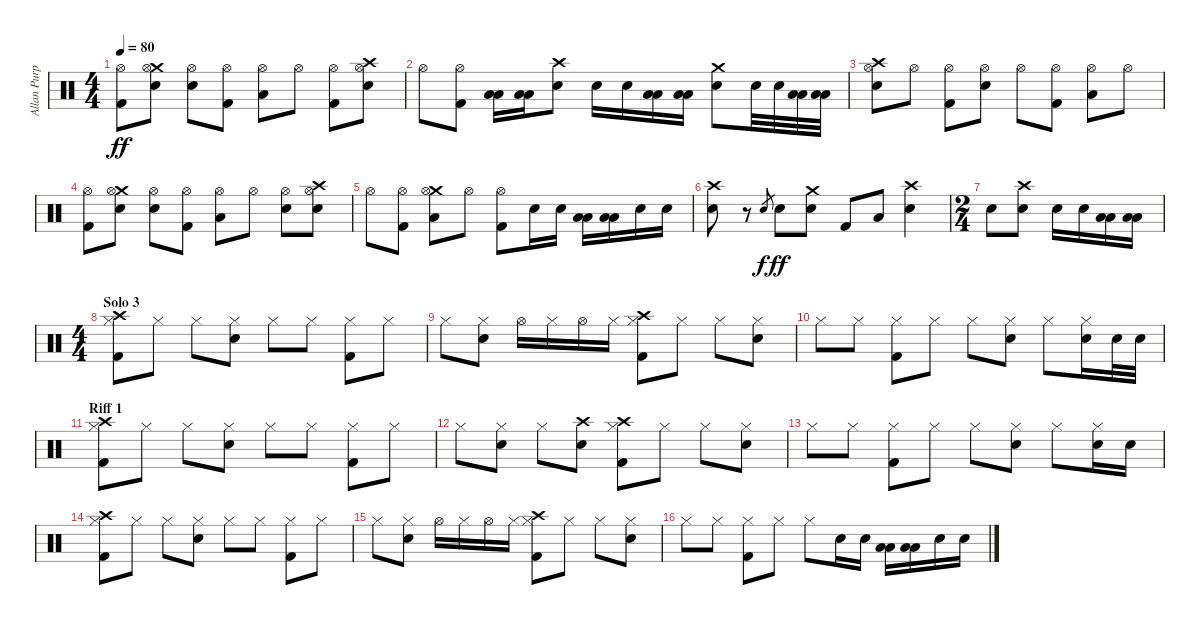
\track ("Allan Purple" "Allan Purp") {instrument percussion}
\staff {score}
\articulation defaults
\ts (4 4)
\tempo 80
\clef neutral
\ks c
("Hi-Hat (open)" "Kick (hit) 2").8{dy ff} ("Crash medium (hit)" "Hi-Hat (open)" "Snare (hit) 2").8 ("Hi-Hat (open)" "Electric Snare (hit)").8 ("Hi-Hat (open)" "Kick (hit) 2").8 ("Hi-Hat (open)" "Low Tom (hit)").8 "Hi-Hat (open)".8 ("Hi-Hat (open)" "Kick (hit) 2").8 ("Crash high (hit)" "Hi-Hat (open)" "Snare (hit) 2").8 |
"Hi-Hat (open)".8 ("Hi-Hat (open)" "Kick (hit) 2").8 ("Low Tom (hit)" "Low Tom (hit)").16 ("Low Tom (hit)" "Low Tom (hit)").16 ("Crash high (hit)" "Electric Snare (hit)").8 "Electric Snare (hit)".16 "Electric Snare (hit)".16 ("Low Tom (hit)" "Low Tom (hit)").16 ("Low Tom (hit)" "Low Tom (hit)").16 ("Crash medium (hit)" "Snare (hit) 2").8 "Electric Snare (hit)".32 "Electric Snare (hit)".32 ("Low Tom (hit)" "Low Tom (hit)").32 ("Low Tom (hit)" "Low Tom (hit)").32 |
("Crash high (hit)" "Hi-Hat (open)" "Snare (hit) 2").8 "Hi-Hat (open)".8 ("Hi-Hat (open)" "Kick (hit) 2").8 ("Hi-Hat (open)" "Snare (hit) 2").8 "Hi-Hat (open)".8 ("Hi-Hat (open)" "Kick (hit) 2").8 ("Hi-Hat (open)" "Low Tom (hit)").8 "Hi-Hat (open)".8 |
("Hi-Hat (open)" "Kick (hit) 2").8 ("Crash medium (hit)" "Hi-Hat (open)" "Snare (hit) 2").8 ("Hi-Hat (open)" "Electric Snare (hit)").8 ("Hi-Hat (open)" "Kick (hit) 2").8 ("Hi-Hat (open)" "Low Tom (hit)").8 "Hi-Hat (open)".8 ("Hi-Hat (open)" "Snare (hit) 2").8 ("Crash high (hit)" "Hi-Hat (open)" "Snare (hit) 2").8 |
"Hi-Hat (open)".8 ("Hi-Hat (open)" "Kick (hit) 2").8 ("Crash medium (hit)" "Hi-Hat (open)" "Low Tom (hit)").8 "Hi-Hat (open)".8 ("Hi-Hat (open)" "Kick (hit) 2").8 "Electric Snare (hit)".16 "Electric Snare (hit)".16 ("Low Tom (hit)" "Low Tom (hit)").16 ("Low Tom (hit)" "Low Tom (hit)").16 "Electric Snare (hit)".16 "Electric Snare (hit)".16 |
("Crash high (hit)" "Snare (hit) 2").8 r.8 "Electric Snare (hit)".8{gr dy f} "Electric Snare (hit)".8{dy ff} ("Crash medium (hit)" "Electric Snare (hit)").8 "Kick (hit) 2".8 "Low Tom (hit)".8 ("Crash high (hit)" "Electric Snare (hit)").4 |
\ts (2 4)
"Snare (hit) 2".8 ("Crash high (hit)" "Electric Snare (hit)").8 "Electric Snare (hit)".16 "Electric Snare (hit)".16 ("Low Tom (hit)" "Low Tom (hit)").16 ("Low Tom (hit)" "Low Tom (hit)").16 |
\ts (4 4)
\section ("" "Solo 3")
("Crash high (hit)" "Hi-Hat (closed)" "Kick (hit) 2").8 "Hi-Hat (closed)".8 "Hi-Hat (closed)".8 ("Hi-Hat (closed)" "Snare (hit) 2").8 "Hi-Hat (closed)".8 "Hi-Hat (closed)".8 ("Hi-Hat (closed)" "Kick (hit) 2").8 "Hi-Hat (closed)".8 |
"Hi-Hat (closed)".8 ("Hi-Hat (closed)" "Snare (hit) 2").8 "Hi-Hat (open)".16 "Hi-Hat (closed)".16 "Hi-Hat (open)".16 "Hi-Hat (closed)".16 ("Crash high (hit)" "Hi-Hat (closed)" "Kick (hit) 2").8 "Hi-Hat (closed)".8 "Hi-Hat (closed)".8 ("Hi-Hat (closed)" "Snare (hit) 2").8 |
"Hi-Hat (closed)".8 "Hi-Hat (closed)".8 ("Hi-Hat (closed)" "Kick (hit) 2").8 "Hi-Hat (closed)".8 "Hi-Hat (closed)".8 ("Hi-Hat (closed)" "Snare (hit) 2").8 "Hi-Hat (closed)".8 ("Hi-Hat (closed)" "Electric Snare (hit)").16 "Electric Snare (hit)".32 "Electric Snare (hit)".32 |
\section ("" "Riff 1")
("Crash high (hit)" "Hi-Hat (closed)" "Kick (hit) 2").8 "Hi-Hat (closed)".8 "Hi-Hat (closed)".8 ("Hi-Hat (closed)" "Snare (hit) 2").8 "Hi-Hat (closed)".8 "Hi-Hat (closed)".8 ("Hi-Hat (closed)" "Kick (hit) 2").8 "Hi-Hat (closed)".8 |
"Hi-Hat (closed)".8 ("Hi-Hat (closed)" "Snare (hit) 2").8 "Hi-Hat (closed)".8 ("Crash high (hit)" "Electric Snare (hit)").8 ("Crash high (hit)" "Hi-Hat (closed)" "Kick (hit) 2").8 "Hi-Hat (closed)".8 "Hi-Hat (closed)".8 ("Hi-Hat (closed)" "Snare (hit) 2").8 |
"Hi-Hat (closed)".8 "Hi-Hat (closed)".8 ("Hi-Hat (closed)" "Kick (hit) 2").8 "Hi-Hat (closed)".8 "Hi-Hat (closed)".8 ("Hi-Hat (closed)" "Snare (hit) 2").8 "Hi-Hat (closed)".8 ("Hi-Hat (closed)" "Electric Snare (hit)").16 "Electric Snare (hit)".16 |
("Crash high (hit)" "Hi-Hat (closed)" "Kick (hit) 2").8 "Hi-Hat (closed)".8 "Hi-Hat (closed)".8 ("Hi-Hat (closed)" "Snare (hit) 2").8 "Hi-Hat (closed)".8 "Hi-Hat (closed)".8 ("Hi-Hat (closed)" "Kick (hit) 2").8 "Hi-Hat (closed)".8 |
"Hi-Hat (closed)".8 ("Hi-Hat (closed)" "Snare (hit) 2").8 "Hi-Hat (open)".16 "Hi-Hat (closed)".16 "Hi-Hat (open)".16 "Hi-Hat (closed)".16 ("Crash high (hit)" "Hi-Hat (closed)" "Kick (hit) 2").8 "Hi-Hat (closed)".8 "Hi-Hat (closed)".8 ("Hi-Hat (closed)" "Snare (hit) 2").8 |
"Hi-Hat (closed)".8 "Hi-Hat (closed)".8 ("Hi-Hat (closed)" "Kick (hit) 2").8 "Hi-Hat (closed)".8 "Hi-Hat (closed)".8 "Electric Snare (hit)".16 "Electric Snare (hit)".16 ("Low Tom (hit)" "Low Tom (hit)").16 ("Low Tom (hit)" "Low Tom (hit)").16 "Snare (hit) 2".16 "Snare (hit) 2".16
